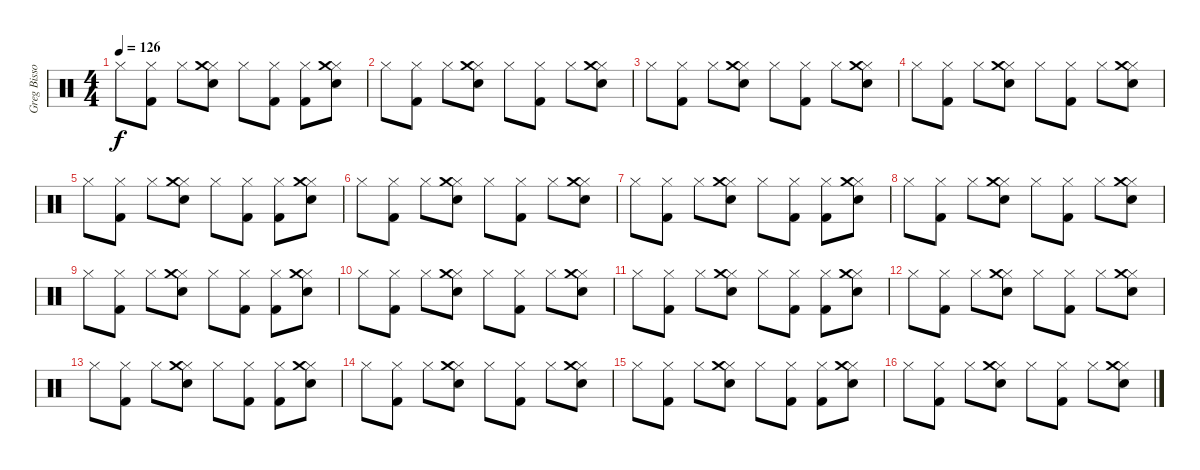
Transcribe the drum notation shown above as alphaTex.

\track ("Greg Bissonette - drums" "Greg Bisso") {instrument percussion}
\staff {score}
\articulation defaults
\ts (4 4)
\tempo 126
\clef neutral
\ks c "Hi-Hat (closed)".8{dy f}
("Hi-Hat (closed)" "Kick (hit) 2").8 "Hi-Hat (closed)".8 ("Hi-Hat (closed)" "Snare (hit) 2" "Crash medium (hit)").8 "Hi-Hat (closed)".8 ("Hi-Hat (closed)" "Kick (hit) 2").8 ("Hi-Hat (closed)" "Kick (hit) 2").8 ("Hi-Hat (closed)" "Snare (hit) 2" "Crash medium (hit)").8 |
"Hi-Hat (closed)".8 ("Hi-Hat (closed)" "Kick (hit) 2").8 "Hi-Hat (closed)".8 ("Hi-Hat (closed)" "Snare (hit) 2" "Crash medium (hit)").8 "Hi-Hat (closed)".8 ("Hi-Hat (closed)" "Kick (hit) 2").8 "Hi-Hat (closed)".8 ("Hi-Hat (closed)" "Snare (hit) 2" "Crash medium (hit)").8 |
"Hi-Hat (closed)".8 ("Hi-Hat (closed)" "Kick (hit) 2").8 "Hi-Hat (closed)".8 ("Hi-Hat (closed)" "Snare (hit) 2" "Crash medium (hit)").8 "Hi-Hat (closed)".8 ("Hi-Hat (closed)" "Kick (hit) 2").8 "Hi-Hat (closed)".8 ("Hi-Hat (closed)" "Snare (hit) 2" "Crash medium (hit)").8 |
"Hi-Hat (closed)".8 ("Hi-Hat (closed)" "Kick (hit) 2").8 "Hi-Hat (closed)".8 ("Hi-Hat (closed)" "Snare (hit) 2" "Crash medium (hit)").8 "Hi-Hat (closed)".8 ("Hi-Hat (closed)" "Kick (hit) 2").8 "Hi-Hat (closed)".8 ("Hi-Hat (closed)" "Snare (hit) 2" "Crash medium (hit)").8 |
"Hi-Hat (closed)".8 ("Hi-Hat (closed)" "Kick (hit) 2").8 "Hi-Hat (closed)".8 ("Hi-Hat (closed)" "Snare (hit) 2" "Crash medium (hit)").8 "Hi-Hat (closed)".8 ("Hi-Hat (closed)" "Kick (hit) 2").8 ("Hi-Hat (closed)" "Kick (hit) 2").8 ("Hi-Hat (closed)" "Snare (hit) 2" "Crash medium (hit)").8 |
"Hi-Hat (closed)".8 ("Hi-Hat (closed)" "Kick (hit) 2").8 "Hi-Hat (closed)".8 ("Hi-Hat (closed)" "Snare (hit) 2" "Crash medium (hit)").8 "Hi-Hat (closed)".8 ("Hi-Hat (closed)" "Kick (hit) 2").8 "Hi-Hat (closed)".8 ("Hi-Hat (closed)" "Snare (hit) 2" "Crash medium (hit)").8 |
"Hi-Hat (closed)".8 ("Hi-Hat (closed)" "Kick (hit) 2").8 "Hi-Hat (closed)".8 ("Hi-Hat (closed)" "Snare (hit) 2" "Crash medium (hit)").8 "Hi-Hat (closed)".8 ("Hi-Hat (closed)" "Kick (hit) 2").8 ("Hi-Hat (closed)" "Kick (hit) 2").8 ("Hi-Hat (closed)" "Snare (hit) 2" "Crash medium (hit)").8 |
"Hi-Hat (closed)".8 ("Hi-Hat (closed)" "Kick (hit) 2").8 "Hi-Hat (closed)".8 ("Hi-Hat (closed)" "Snare (hit) 2" "Crash medium (hit)").8 "Hi-Hat (closed)".8 ("Hi-Hat (closed)" "Kick (hit) 2").8 "Hi-Hat (closed)".8 ("Hi-Hat (closed)" "Snare (hit) 2" "Crash medium (hit)").8 |
"Hi-Hat (closed)".8 ("Hi-Hat (closed)" "Kick (hit) 2").8 "Hi-Hat (closed)".8 ("Hi-Hat (closed)" "Snare (hit) 2" "Crash medium (hit)").8 "Hi-Hat (closed)".8 ("Hi-Hat (closed)" "Kick (hit) 2").8 ("Hi-Hat (closed)" "Kick (hit) 2").8 ("Hi-Hat (closed)" "Snare (hit) 2" "Crash medium (hit)").8 |
"Hi-Hat (closed)".8 ("Hi-Hat (closed)" "Kick (hit) 2").8 "Hi-Hat (closed)".8 ("Hi-Hat (closed)" "Snare (hit) 2" "Crash medium (hit)").8 "Hi-Hat (closed)".8 ("Hi-Hat (closed)" "Kick (hit) 2").8 "Hi-Hat (closed)".8 ("Hi-Hat (closed)" "Snare (hit) 2" "Crash medium (hit)").8 |
"Hi-Hat (closed)".8 ("Hi-Hat (closed)" "Kick (hit) 2").8 "Hi-Hat (closed)".8 ("Hi-Hat (closed)" "Snare (hit) 2" "Crash medium (hit)").8 "Hi-Hat (closed)".8 ("Hi-Hat (closed)" "Kick (hit) 2").8 ("Hi-Hat (closed)" "Kick (hit) 2").8 ("Hi-Hat (closed)" "Snare (hit) 2" "Crash medium (hit)").8 |
"Hi-Hat (closed)".8 ("Hi-Hat (closed)" "Kick (hit) 2").8 "Hi-Hat (closed)".8 ("Hi-Hat (closed)" "Snare (hit) 2" "Crash medium (hit)").8 "Hi-Hat (closed)".8 ("Hi-Hat (closed)" "Kick (hit) 2").8 "Hi-Hat (closed)".8 ("Hi-Hat (closed)" "Snare (hit) 2" "Crash medium (hit)").8 |
"Hi-Hat (closed)".8 ("Hi-Hat (closed)" "Kick (hit) 2").8 "Hi-Hat (closed)".8 ("Hi-Hat (closed)" "Snare (hit) 2" "Crash medium (hit)").8 "Hi-Hat (closed)".8 ("Hi-Hat (closed)" "Kick (hit) 2").8 ("Hi-Hat (closed)" "Kick (hit) 2").8 ("Hi-Hat (closed)" "Snare (hit) 2" "Crash medium (hit)").8 |
"Hi-Hat (closed)".8 ("Hi-Hat (closed)" "Kick (hit) 2").8 "Hi-Hat (closed)".8 ("Hi-Hat (closed)" "Snare (hit) 2" "Crash medium (hit)").8 "Hi-Hat (closed)".8 ("Hi-Hat (closed)" "Kick (hit) 2").8 "Hi-Hat (closed)".8 ("Hi-Hat (closed)" "Snare (hit) 2" "Crash medium (hit)").8 |
"Hi-Hat (closed)".8 ("Hi-Hat (closed)" "Kick (hit) 2").8 "Hi-Hat (closed)".8 ("Hi-Hat (closed)" "Snare (hit) 2" "Crash medium (hit)").8 "Hi-Hat (closed)".8 ("Hi-Hat (closed)" "Kick (hit) 2").8 ("Hi-Hat (closed)" "Kick (hit) 2").8 ("Hi-Hat (closed)" "Snare (hit) 2" "Crash medium (hit)").8 |
"Hi-Hat (closed)".8 ("Hi-Hat (closed)" "Kick (hit) 2").8 "Hi-Hat (closed)".8 ("Hi-Hat (closed)" "Snare (hit) 2" "Crash medium (hit)").8 "Hi-Hat (closed)".8 ("Hi-Hat (closed)" "Kick (hit) 2").8 "Hi-Hat (closed)".8 ("Hi-Hat (closed)" "Snare (hit) 2" "Crash medium (hit)").8
